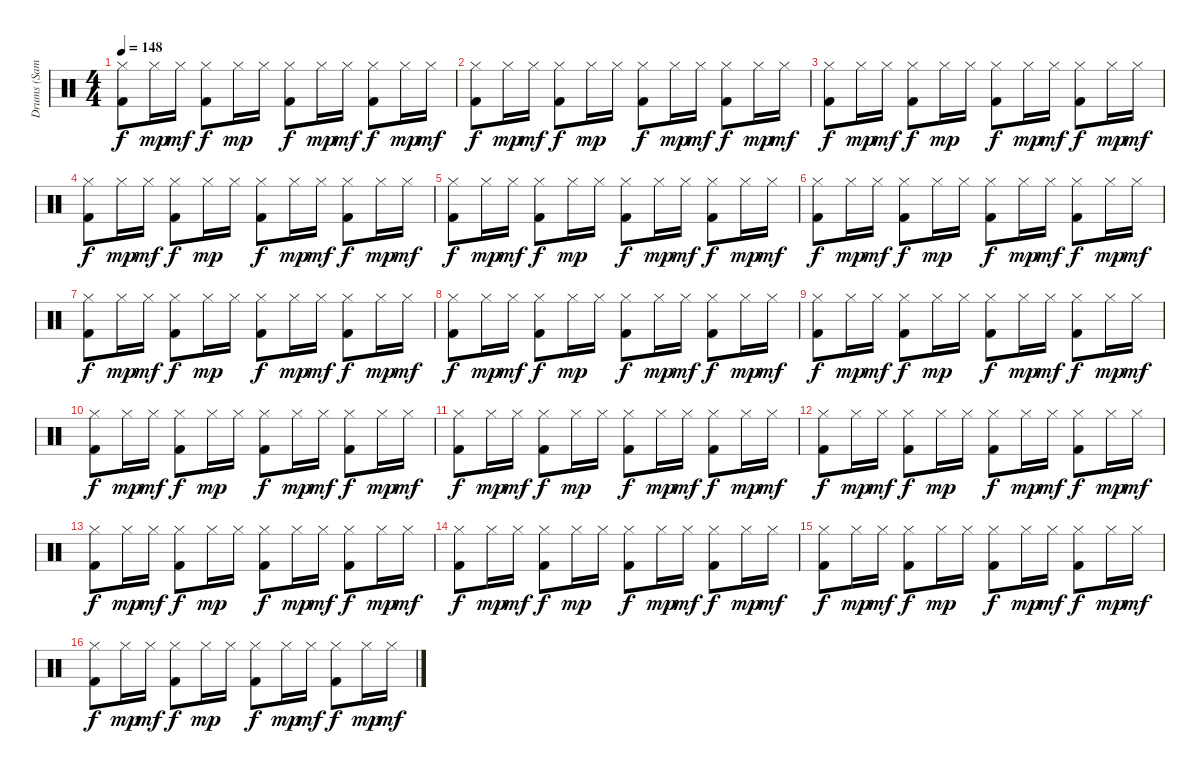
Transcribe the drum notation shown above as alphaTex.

\track ("Drums (Samuelson)" "Drums (Sam") {instrument percussion}
\staff
\articulation defaults
\ts (4 4)
\tempo 148
\clef neutral
\ks c
("Hi-Hat (closed)" "Kick (hit) 2").8{dy f} "Hi-Hat (closed)".16{dy mp} "Hi-Hat (closed)".16{dy mf} ("Hi-Hat (closed)" "Kick (hit) 2").8{dy f} "Hi-Hat (closed)".16{dy mp} "Hi-Hat (closed)".16 ("Hi-Hat (closed)" "Kick (hit) 2").8{dy f} "Hi-Hat (closed)".16{dy mp} "Hi-Hat (closed)".16{dy mf} ("Hi-Hat (closed)" "Kick (hit) 2").8{dy f} "Hi-Hat (closed)".16{dy mp} "Hi-Hat (closed)".16{dy mf} |
("Hi-Hat (closed)" "Kick (hit) 2").8{dy f} "Hi-Hat (closed)".16{dy mp} "Hi-Hat (closed)".16{dy mf} ("Hi-Hat (closed)" "Kick (hit) 2").8{dy f} "Hi-Hat (closed)".16{dy mp} "Hi-Hat (closed)".16 ("Hi-Hat (closed)" "Kick (hit) 2").8{dy f} "Hi-Hat (closed)".16{dy mp} "Hi-Hat (closed)".16{dy mf} ("Hi-Hat (closed)" "Kick (hit) 2").8{dy f} "Hi-Hat (closed)".16{dy mp} "Hi-Hat (closed)".16{dy mf} |
("Hi-Hat (closed)" "Kick (hit) 2").8{dy f} "Hi-Hat (closed)".16{dy mp} "Hi-Hat (closed)".16{dy mf} ("Hi-Hat (closed)" "Kick (hit) 2").8{dy f} "Hi-Hat (closed)".16{dy mp} "Hi-Hat (closed)".16 ("Hi-Hat (closed)" "Kick (hit) 2").8{dy f} "Hi-Hat (closed)".16{dy mp} "Hi-Hat (closed)".16{dy mf} ("Hi-Hat (closed)" "Kick (hit) 2").8{dy f} "Hi-Hat (closed)".16{dy mp} "Hi-Hat (closed)".16{dy mf} |
("Hi-Hat (closed)" "Kick (hit) 2").8{dy f} "Hi-Hat (closed)".16{dy mp} "Hi-Hat (closed)".16{dy mf} ("Hi-Hat (closed)" "Kick (hit) 2").8{dy f} "Hi-Hat (closed)".16{dy mp} "Hi-Hat (closed)".16 ("Hi-Hat (closed)" "Kick (hit) 2").8{dy f} "Hi-Hat (closed)".16{dy mp} "Hi-Hat (closed)".16{dy mf} ("Hi-Hat (closed)" "Kick (hit) 2").8{dy f} "Hi-Hat (closed)".16{dy mp} "Hi-Hat (closed)".16{dy mf} |
("Hi-Hat (closed)" "Kick (hit) 2").8{dy f} "Hi-Hat (closed)".16{dy mp} "Hi-Hat (closed)".16{dy mf} ("Hi-Hat (closed)" "Kick (hit) 2").8{dy f} "Hi-Hat (closed)".16{dy mp} "Hi-Hat (closed)".16 ("Hi-Hat (closed)" "Kick (hit) 2").8{dy f} "Hi-Hat (closed)".16{dy mp} "Hi-Hat (closed)".16{dy mf} ("Hi-Hat (closed)" "Kick (hit) 2").8{dy f} "Hi-Hat (closed)".16{dy mp} "Hi-Hat (closed)".16{dy mf} |
("Hi-Hat (closed)" "Kick (hit) 2").8{dy f} "Hi-Hat (closed)".16{dy mp} "Hi-Hat (closed)".16{dy mf} ("Hi-Hat (closed)" "Kick (hit) 2").8{dy f} "Hi-Hat (closed)".16{dy mp} "Hi-Hat (closed)".16 ("Hi-Hat (closed)" "Kick (hit) 2").8{dy f} "Hi-Hat (closed)".16{dy mp} "Hi-Hat (closed)".16{dy mf} ("Hi-Hat (closed)" "Kick (hit) 2").8{dy f} "Hi-Hat (closed)".16{dy mp} "Hi-Hat (closed)".16{dy mf} |
("Hi-Hat (closed)" "Kick (hit) 2").8{dy f} "Hi-Hat (closed)".16{dy mp} "Hi-Hat (closed)".16{dy mf} ("Hi-Hat (closed)" "Kick (hit) 2").8{dy f} "Hi-Hat (closed)".16{dy mp} "Hi-Hat (closed)".16 ("Hi-Hat (closed)" "Kick (hit) 2").8{dy f} "Hi-Hat (closed)".16{dy mp} "Hi-Hat (closed)".16{dy mf} ("Hi-Hat (closed)" "Kick (hit) 2").8{dy f} "Hi-Hat (closed)".16{dy mp} "Hi-Hat (closed)".16{dy mf} |
("Hi-Hat (closed)" "Kick (hit) 2").8{dy f} "Hi-Hat (closed)".16{dy mp} "Hi-Hat (closed)".16{dy mf} ("Hi-Hat (closed)" "Kick (hit) 2").8{dy f} "Hi-Hat (closed)".16{dy mp} "Hi-Hat (closed)".16 ("Hi-Hat (closed)" "Kick (hit) 2").8{dy f} "Hi-Hat (closed)".16{dy mp} "Hi-Hat (closed)".16{dy mf} ("Hi-Hat (closed)" "Kick (hit) 2").8{dy f} "Hi-Hat (closed)".16{dy mp} "Hi-Hat (closed)".16{dy mf} |
("Hi-Hat (closed)" "Kick (hit) 2").8{dy f} "Hi-Hat (closed)".16{dy mp} "Hi-Hat (closed)".16{dy mf} ("Hi-Hat (closed)" "Kick (hit) 2").8{dy f} "Hi-Hat (closed)".16{dy mp} "Hi-Hat (closed)".16 ("Hi-Hat (closed)" "Kick (hit) 2").8{dy f} "Hi-Hat (closed)".16{dy mp} "Hi-Hat (closed)".16{dy mf} ("Hi-Hat (closed)" "Kick (hit) 2").8{dy f} "Hi-Hat (closed)".16{dy mp} "Hi-Hat (closed)".16{dy mf} |
("Hi-Hat (closed)" "Kick (hit) 2").8{dy f} "Hi-Hat (closed)".16{dy mp} "Hi-Hat (closed)".16{dy mf} ("Hi-Hat (closed)" "Kick (hit) 2").8{dy f} "Hi-Hat (closed)".16{dy mp} "Hi-Hat (closed)".16 ("Hi-Hat (closed)" "Kick (hit) 2").8{dy f} "Hi-Hat (closed)".16{dy mp} "Hi-Hat (closed)".16{dy mf} ("Hi-Hat (closed)" "Kick (hit) 2").8{dy f} "Hi-Hat (closed)".16{dy mp} "Hi-Hat (closed)".16{dy mf} |
("Hi-Hat (closed)" "Kick (hit) 2").8{dy f} "Hi-Hat (closed)".16{dy mp} "Hi-Hat (closed)".16{dy mf} ("Hi-Hat (closed)" "Kick (hit) 2").8{dy f} "Hi-Hat (closed)".16{dy mp} "Hi-Hat (closed)".16 ("Hi-Hat (closed)" "Kick (hit) 2").8{dy f} "Hi-Hat (closed)".16{dy mp} "Hi-Hat (closed)".16{dy mf} ("Hi-Hat (closed)" "Kick (hit) 2").8{dy f} "Hi-Hat (closed)".16{dy mp} "Hi-Hat (closed)".16{dy mf} |
("Hi-Hat (closed)" "Kick (hit) 2").8{dy f} "Hi-Hat (closed)".16{dy mp} "Hi-Hat (closed)".16{dy mf} ("Hi-Hat (closed)" "Kick (hit) 2").8{dy f} "Hi-Hat (closed)".16{dy mp} "Hi-Hat (closed)".16 ("Hi-Hat (closed)" "Kick (hit) 2").8{dy f} "Hi-Hat (closed)".16{dy mp} "Hi-Hat (closed)".16{dy mf} ("Hi-Hat (closed)" "Kick (hit) 2").8{dy f} "Hi-Hat (closed)".16{dy mp} "Hi-Hat (closed)".16{dy mf} |
("Hi-Hat (closed)" "Kick (hit) 2").8{dy f} "Hi-Hat (closed)".16{dy mp} "Hi-Hat (closed)".16{dy mf} ("Hi-Hat (closed)" "Kick (hit) 2").8{dy f} "Hi-Hat (closed)".16{dy mp} "Hi-Hat (closed)".16 ("Hi-Hat (closed)" "Kick (hit) 2").8{dy f} "Hi-Hat (closed)".16{dy mp} "Hi-Hat (closed)".16{dy mf} ("Hi-Hat (closed)" "Kick (hit) 2").8{dy f} "Hi-Hat (closed)".16{dy mp} "Hi-Hat (closed)".16{dy mf} |
("Hi-Hat (closed)" "Kick (hit) 2").8{dy f} "Hi-Hat (closed)".16{dy mp} "Hi-Hat (closed)".16{dy mf} ("Hi-Hat (closed)" "Kick (hit) 2").8{dy f} "Hi-Hat (closed)".16{dy mp} "Hi-Hat (closed)".16 ("Hi-Hat (closed)" "Kick (hit) 2").8{dy f} "Hi-Hat (closed)".16{dy mp} "Hi-Hat (closed)".16{dy mf} ("Hi-Hat (closed)" "Kick (hit) 2").8{dy f} "Hi-Hat (closed)".16{dy mp} "Hi-Hat (closed)".16{dy mf} |
("Hi-Hat (closed)" "Kick (hit) 2").8{dy f} "Hi-Hat (closed)".16{dy mp} "Hi-Hat (closed)".16{dy mf} ("Hi-Hat (closed)" "Kick (hit) 2").8{dy f} "Hi-Hat (closed)".16{dy mp} "Hi-Hat (closed)".16 ("Hi-Hat (closed)" "Kick (hit) 2").8{dy f} "Hi-Hat (closed)".16{dy mp} "Hi-Hat (closed)".16{dy mf} ("Hi-Hat (closed)" "Kick (hit) 2").8{dy f} "Hi-Hat (closed)".16{dy mp} "Hi-Hat (closed)".16{dy mf} |
("Hi-Hat (closed)" "Kick (hit) 2").8{dy f} "Hi-Hat (closed)".16{dy mp} "Hi-Hat (closed)".16{dy mf} ("Hi-Hat (closed)" "Kick (hit) 2").8{dy f} "Hi-Hat (closed)".16{dy mp} "Hi-Hat (closed)".16 ("Hi-Hat (closed)" "Kick (hit) 2").8{dy f} "Hi-Hat (closed)".16{dy mp} "Hi-Hat (closed)".16{dy mf} ("Hi-Hat (closed)" "Kick (hit) 2").8{dy f} "Hi-Hat (closed)".16{dy mp} "Hi-Hat (closed)".16{dy mf}
